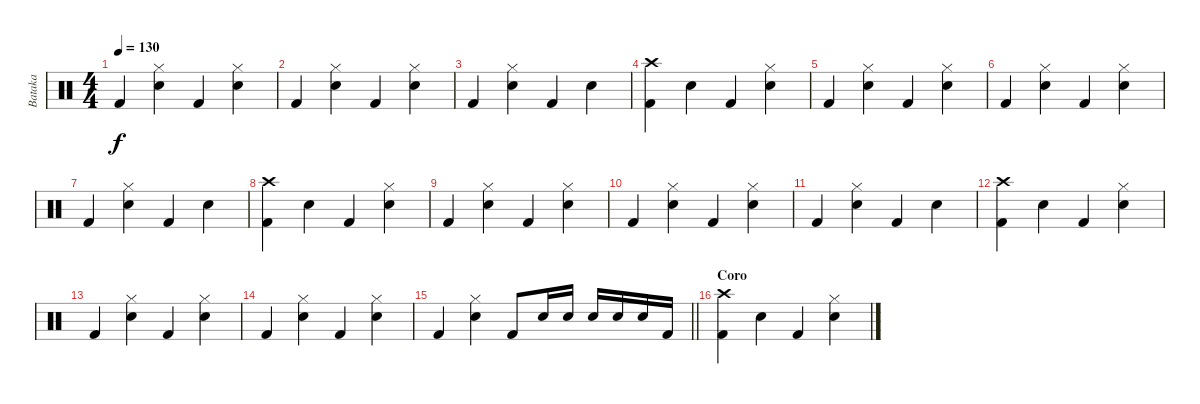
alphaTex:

\track ("Bataka" "Bataka") {instrument percussion}
\staff {score}
\articulation defaults
\ts (4 4)
\tempo 130
\clef neutral
\ks c "Kick (hit) 2".4{dy f}
("Hi-Hat (closed)" "Snare (hit) 2").4 "Kick (hit) 2".4 ("Hi-Hat (closed)" "Snare (hit) 2").4 |
"Kick (hit) 2".4 ("Hi-Hat (closed)" "Snare (hit) 2").4 "Kick (hit) 2".4 ("Hi-Hat (closed)" "Snare (hit) 2").4 |
"Kick (hit) 2".4 ("Hi-Hat (closed)" "Snare (hit) 2").4 "Kick (hit) 2".4 "Snare (hit) 2".4 |
("Crash high (hit)" "Kick (hit) 2").4 "Snare (hit) 2".4 "Kick (hit) 2".4 ("Hi-Hat (closed)" "Snare (hit) 2").4 |
"Kick (hit) 2".4 ("Hi-Hat (closed)" "Snare (hit) 2").4 "Kick (hit) 2".4 ("Hi-Hat (closed)" "Snare (hit) 2").4 |
"Kick (hit) 2".4 ("Hi-Hat (closed)" "Snare (hit) 2").4 "Kick (hit) 2".4 ("Hi-Hat (closed)" "Snare (hit) 2").4 |
"Kick (hit) 2".4 ("Hi-Hat (closed)" "Snare (hit) 2").4 "Kick (hit) 2".4 "Snare (hit) 2".4 |
("Crash high (hit)" "Kick (hit) 2").4 "Snare (hit) 2".4 "Kick (hit) 2".4 ("Hi-Hat (closed)" "Snare (hit) 2").4 |
"Kick (hit) 2".4 ("Hi-Hat (closed)" "Snare (hit) 2").4 "Kick (hit) 2".4 ("Hi-Hat (closed)" "Snare (hit) 2").4 |
"Kick (hit) 2".4 ("Hi-Hat (closed)" "Snare (hit) 2").4 "Kick (hit) 2".4 ("Hi-Hat (closed)" "Snare (hit) 2").4 |
"Kick (hit) 2".4 ("Hi-Hat (closed)" "Snare (hit) 2").4 "Kick (hit) 2".4 "Snare (hit) 2".4 |
("Crash high (hit)" "Kick (hit) 2").4 "Snare (hit) 2".4 "Kick (hit) 2".4 ("Hi-Hat (closed)" "Snare (hit) 2").4 |
"Kick (hit) 2".4 ("Hi-Hat (closed)" "Snare (hit) 2").4 "Kick (hit) 2".4 ("Hi-Hat (closed)" "Snare (hit) 2").4 |
"Kick (hit) 2".4 ("Hi-Hat (closed)" "Snare (hit) 2").4 "Kick (hit) 2".4 ("Hi-Hat (closed)" "Snare (hit) 2").4 |
\barLineRight lightlight "Kick (hit) 2".4
("Hi-Hat (closed)" "Snare (hit) 2").4 "Kick (hit) 2".8 "Snare (hit) 2".16 "Snare (hit) 2".16 "Snare (hit) 2".16 "Snare (hit) 2".16 "Snare (hit) 2".16 "Kick (hit) 2".16 |
\section ("" "Coro")
("Crash high (hit)" "Kick (hit) 2").4 "Snare (hit) 2".4 "Kick (hit) 2".4 ("Hi-Hat (closed)" "Snare (hit) 2").4
